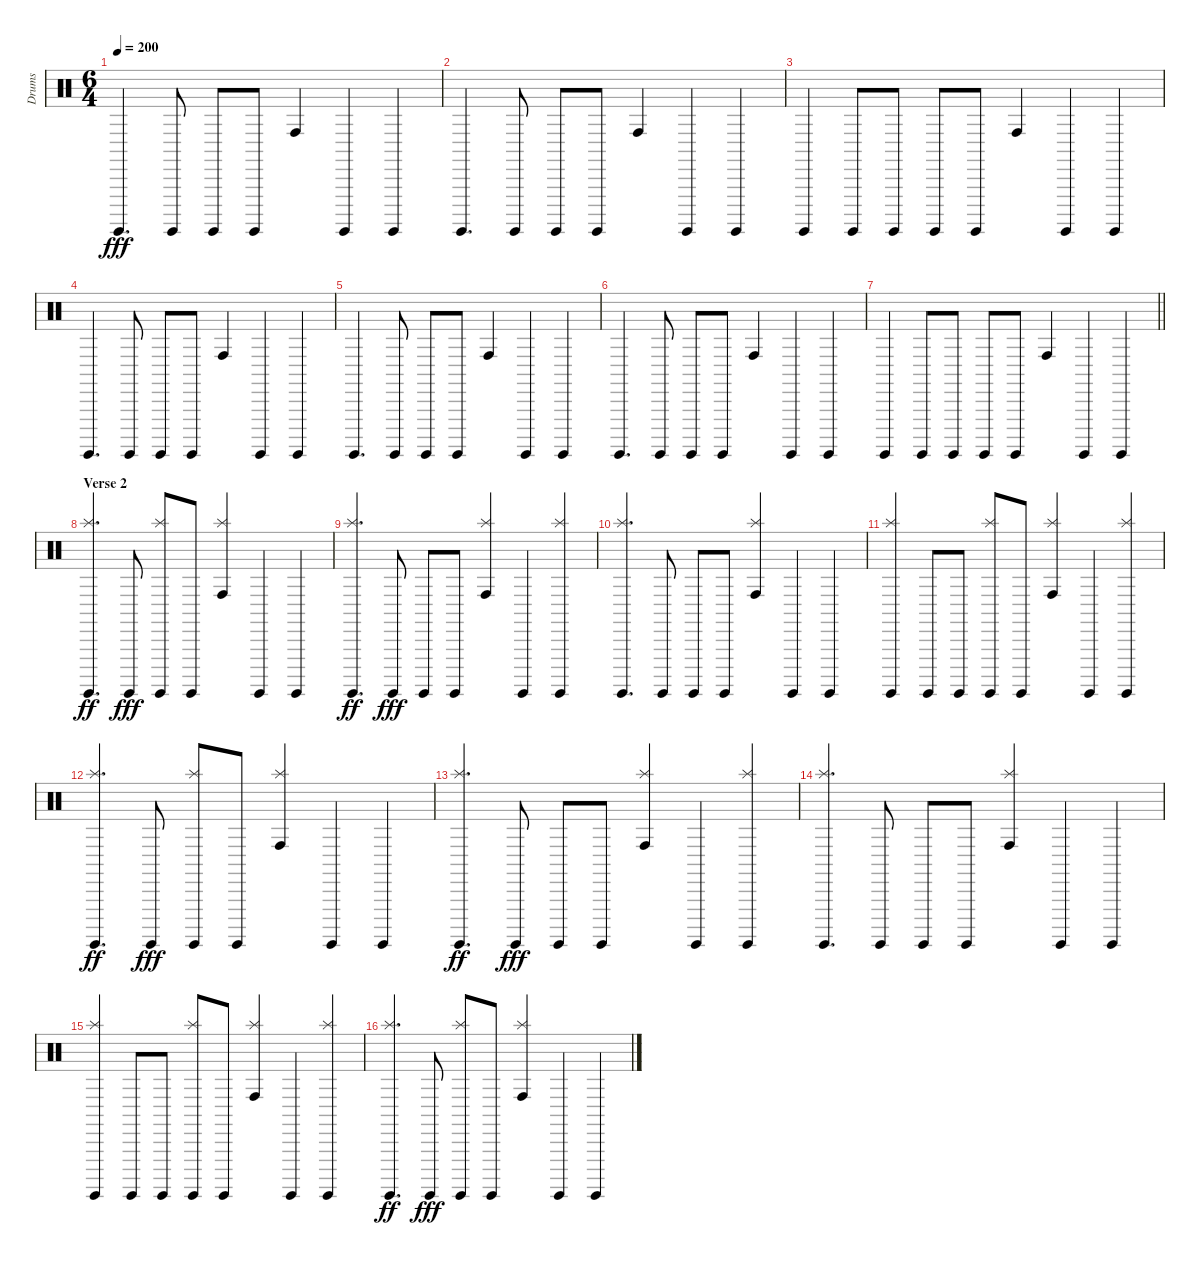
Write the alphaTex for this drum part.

\track ("Drums" "Drums") {instrument percussion}
\staff {score}
\articulation defaults
\ts (6 4)
\tempo 200
\clef neutral
\ks c "Surdo (hit)".4{d dy fff} "Surdo (hit)".8 "Surdo (hit)".8 "Surdo (hit)".8 "Conga high (hit)".4 "Surdo (hit)".4 "Surdo (hit)".4
|
"Surdo (hit)".4{d} "Surdo (hit)".8 "Surdo (hit)".8 "Surdo (hit)".8 "Conga high (hit)".4 "Surdo (hit)".4 "Surdo (hit)".4 |
"Surdo (hit)".4 "Surdo (hit)".8 "Surdo (hit)".8 "Surdo (hit)".8 "Surdo (hit)".8 "Conga high (hit)".4 "Surdo (hit)".4 "Surdo (hit)".4 |
"Surdo (hit)".4{d} "Surdo (hit)".8 "Surdo (hit)".8 "Surdo (hit)".8 "Conga high (hit)".4 "Surdo (hit)".4 "Surdo (hit)".4 |
"Surdo (hit)".4{d} "Surdo (hit)".8 "Surdo (hit)".8 "Surdo (hit)".8 "Conga high (hit)".4 "Surdo (hit)".4 "Surdo (hit)".4 |
"Surdo (hit)".4{d} "Surdo (hit)".8 "Surdo (hit)".8 "Surdo (hit)".8 "Conga high (hit)".4 "Surdo (hit)".4 "Surdo (hit)".4 |
\barLineRight lightlight "Surdo (hit)".4 "Surdo (hit)".8 "Surdo (hit)".8 "Surdo (hit)".8 "Surdo (hit)".8 "Conga high (hit)".4 "Surdo (hit)".4 "Surdo (hit)".4
|
\section ("" "Verse 2")
("Splash (hit)" "Surdo (hit)").4{d dy ff} "Surdo (hit)".8{dy fff} ("Splash (hit)" "Surdo (hit)").8 "Surdo (hit)".8 ("Splash (hit)" "Conga high (hit)").4 "Surdo (hit)".4 "Surdo (hit)".4 |
("Splash (hit)" "Surdo (hit)").4{d dy ff} "Surdo (hit)".8{dy fff} "Surdo (hit)".8 "Surdo (hit)".8 ("Splash (hit)" "Conga high (hit)").4 "Surdo (hit)".4 ("Splash (hit)" "Surdo (hit)").4 |
("Splash (hit)" "Surdo (hit)").4{d} "Surdo (hit)".8 "Surdo (hit)".8 "Surdo (hit)".8 ("Splash (hit)" "Conga high (hit)").4 "Surdo (hit)".4 "Surdo (hit)".4 |
("Splash (hit)" "Surdo (hit)").4 "Surdo (hit)".8 "Surdo (hit)".8 ("Splash (hit)" "Surdo (hit)").8 "Surdo (hit)".8 ("Splash (hit)" "Conga high (hit)").4 "Surdo (hit)".4 ("Splash (hit)" "Surdo (hit)").4 |
("Splash (hit)" "Surdo (hit)").4{d dy ff} "Surdo (hit)".8{dy fff} ("Splash (hit)" "Surdo (hit)").8 "Surdo (hit)".8 ("Splash (hit)" "Conga high (hit)").4 "Surdo (hit)".4 "Surdo (hit)".4 |
("Splash (hit)" "Surdo (hit)").4{d dy ff} "Surdo (hit)".8{dy fff} "Surdo (hit)".8 "Surdo (hit)".8 ("Splash (hit)" "Conga high (hit)").4 "Surdo (hit)".4 ("Splash (hit)" "Surdo (hit)").4 |
("Splash (hit)" "Surdo (hit)").4{d} "Surdo (hit)".8 "Surdo (hit)".8 "Surdo (hit)".8 ("Splash (hit)" "Conga high (hit)").4 "Surdo (hit)".4 "Surdo (hit)".4 |
("Splash (hit)" "Surdo (hit)").4 "Surdo (hit)".8 "Surdo (hit)".8 ("Splash (hit)" "Surdo (hit)").8 "Surdo (hit)".8 ("Splash (hit)" "Conga high (hit)").4 "Surdo (hit)".4 ("Splash (hit)" "Surdo (hit)").4 |
("Splash (hit)" "Surdo (hit)").4{d dy ff} "Surdo (hit)".8{dy fff} ("Splash (hit)" "Surdo (hit)").8 "Surdo (hit)".8 ("Splash (hit)" "Conga high (hit)").4 "Surdo (hit)".4 "Surdo (hit)".4
